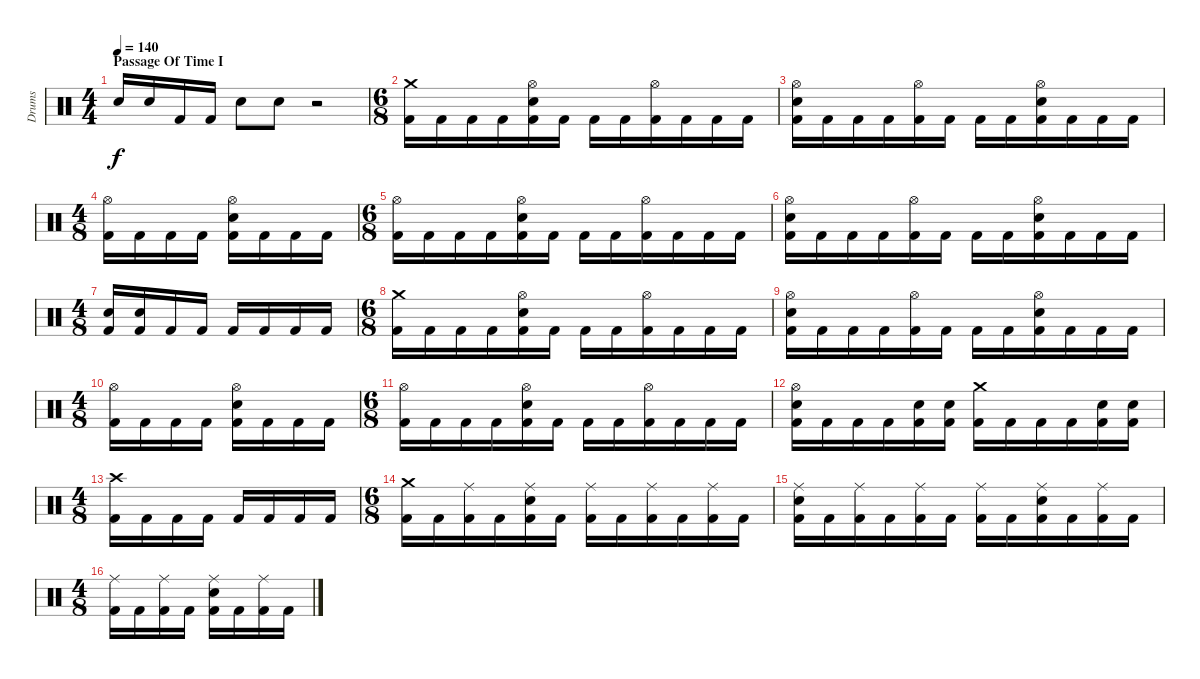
\track ("Drums" "Drums") {instrument percussion}
\staff {score}
\articulation defaults
\ts (4 4)
\section ("" "Passage Of Time I")
\tempo 140
\clef neutral
\ks c "Electric Snare (hit)".16{dy f} "Electric Snare (hit)".16 "Kick (hit) 2".16 "Kick (hit) 2".16 "Electric Snare (hit)".8 "Electric Snare (hit)".8
r.2 |
\ts (6 8)
("Crash medium (hit)" "Kick (hit) 2").16 "Kick (hit) 2".16 "Kick (hit) 2".16 "Kick (hit) 2".16 ("Hi-Hat (open)" "Electric Snare (hit)" "Kick (hit) 2").16 "Kick (hit) 2".16 "Kick (hit) 2".16 "Kick (hit) 2".16 ("Hi-Hat (open)" "Kick (hit) 2").16 "Kick (hit) 2".16 "Kick (hit) 2".16 "Kick (hit) 2".16 |
("Hi-Hat (open)" "Electric Snare (hit)" "Kick (hit) 2").16 "Kick (hit) 2".16 "Kick (hit) 2".16 "Kick (hit) 2".16 ("Hi-Hat (open)" "Kick (hit) 2").16 "Kick (hit) 2".16 "Kick (hit) 2".16 "Kick (hit) 2".16 ("Hi-Hat (open)" "Electric Snare (hit)" "Kick (hit) 2").16 "Kick (hit) 2".16 "Kick (hit) 2".16 "Kick (hit) 2".16 |
\ts (4 8)
("Hi-Hat (open)" "Kick (hit) 2").16 "Kick (hit) 2".16 "Kick (hit) 2".16 "Kick (hit) 2".16 ("Hi-Hat (open)" "Electric Snare (hit)" "Kick (hit) 2").16 "Kick (hit) 2".16 "Kick (hit) 2".16 "Kick (hit) 2".16 |
\ts (6 8)
("Hi-Hat (open)" "Kick (hit) 2").16 "Kick (hit) 2".16 "Kick (hit) 2".16 "Kick (hit) 2".16 ("Hi-Hat (open)" "Electric Snare (hit)" "Kick (hit) 2").16 "Kick (hit) 2".16 "Kick (hit) 2".16 "Kick (hit) 2".16 ("Hi-Hat (open)" "Kick (hit) 2").16 "Kick (hit) 2".16 "Kick (hit) 2".16 "Kick (hit) 2".16 |
("Hi-Hat (open)" "Electric Snare (hit)" "Kick (hit) 2").16 "Kick (hit) 2".16 "Kick (hit) 2".16 "Kick (hit) 2".16 ("Hi-Hat (open)" "Kick (hit) 2").16 "Kick (hit) 2".16 "Kick (hit) 2".16 "Kick (hit) 2".16 ("Hi-Hat (open)" "Electric Snare (hit)" "Kick (hit) 2").16 "Kick (hit) 2".16 "Kick (hit) 2".16 "Kick (hit) 2".16 |
\ts (4 8)
("Electric Snare (hit)" "Kick (hit) 2").16 ("Electric Snare (hit)" "Kick (hit) 2").16 "Kick (hit) 2".16 "Kick (hit) 2".16 "Kick (hit) 2".16 "Kick (hit) 2".16 "Kick (hit) 2".16 "Kick (hit) 2".16 |
\ts (6 8)
("Crash medium (hit)" "Kick (hit) 2").16 "Kick (hit) 2".16 "Kick (hit) 2".16 "Kick (hit) 2".16 ("Hi-Hat (open)" "Electric Snare (hit)" "Kick (hit) 2").16 "Kick (hit) 2".16 "Kick (hit) 2".16 "Kick (hit) 2".16 ("Hi-Hat (open)" "Kick (hit) 2").16 "Kick (hit) 2".16 "Kick (hit) 2".16 "Kick (hit) 2".16 |
("Hi-Hat (open)" "Electric Snare (hit)" "Kick (hit) 2").16 "Kick (hit) 2".16 "Kick (hit) 2".16 "Kick (hit) 2".16 ("Hi-Hat (open)" "Kick (hit) 2").16 "Kick (hit) 2".16 "Kick (hit) 2".16 "Kick (hit) 2".16 ("Hi-Hat (open)" "Electric Snare (hit)" "Kick (hit) 2").16 "Kick (hit) 2".16 "Kick (hit) 2".16 "Kick (hit) 2".16 |
\ts (4 8)
("Hi-Hat (open)" "Kick (hit) 2").16 "Kick (hit) 2".16 "Kick (hit) 2".16 "Kick (hit) 2".16 ("Hi-Hat (open)" "Electric Snare (hit)" "Kick (hit) 2").16 "Kick (hit) 2".16 "Kick (hit) 2".16 "Kick (hit) 2".16 |
\ts (6 8)
("Hi-Hat (open)" "Kick (hit) 2").16 "Kick (hit) 2".16 "Kick (hit) 2".16 "Kick (hit) 2".16 ("Hi-Hat (open)" "Electric Snare (hit)" "Kick (hit) 2").16 "Kick (hit) 2".16 "Kick (hit) 2".16 "Kick (hit) 2".16 ("Hi-Hat (open)" "Kick (hit) 2").16 "Kick (hit) 2".16 "Kick (hit) 2".16 "Kick (hit) 2".16 |
("Hi-Hat (open)" "Electric Snare (hit)" "Kick (hit) 2").16 "Kick (hit) 2".16 "Kick (hit) 2".16 "Kick (hit) 2".16 ("Electric Snare (hit)" "Kick (hit) 2").16 ("Electric Snare (hit)" "Kick (hit) 2").16 ("Crash medium (hit)" "Kick (hit) 2").16 "Kick (hit) 2".16 "Kick (hit) 2".16 "Kick (hit) 2".16 ("Electric Snare (hit)" "Kick (hit) 2").16 ("Electric Snare (hit)" "Kick (hit) 2").16 |
\ts (4 8)
("Crash high (hit)" "Kick (hit) 2").16 "Kick (hit) 2".16 "Kick (hit) 2".16 "Kick (hit) 2".16 "Kick (hit) 2".16 "Kick (hit) 2".16 "Kick (hit) 2".16 "Kick (hit) 2".16 |
\ts (6 8)
\section ("" "")
("Crash medium (hit)" "Kick (hit) 2").16 "Kick (hit) 2".16 ("Ride (middle)" "Kick (hit) 2").16 "Kick (hit) 2".16 ("Ride (middle)" "Electric Snare (hit)" "Kick (hit) 2").16 "Kick (hit) 2".16 ("Ride (middle)" "Kick (hit) 2").16 "Kick (hit) 2".16 ("Ride (middle)" "Kick (hit) 2").16 "Kick (hit) 2".16 ("Ride (middle)" "Kick (hit) 2").16 "Kick (hit) 2".16 |
("Ride (middle)" "Electric Snare (hit)" "Kick (hit) 2").16 "Kick (hit) 2".16 ("Ride (middle)" "Kick (hit) 2").16 "Kick (hit) 2".16 ("Ride (middle)" "Kick (hit) 2").16 "Kick (hit) 2".16 ("Ride (middle)" "Kick (hit) 2").16 "Kick (hit) 2".16 ("Ride (middle)" "Electric Snare (hit)" "Kick (hit) 2").16 "Kick (hit) 2".16 ("Ride (middle)" "Kick (hit) 2").16 "Kick (hit) 2".16 |
\ts (4 8)
("Ride (middle)" "Kick (hit) 2").16 "Kick (hit) 2".16 ("Ride (middle)" "Kick (hit) 2").16 "Kick (hit) 2".16 ("Ride (middle)" "Electric Snare (hit)" "Kick (hit) 2").16 "Kick (hit) 2".16 ("Ride (middle)" "Kick (hit) 2").16 "Kick (hit) 2".16
